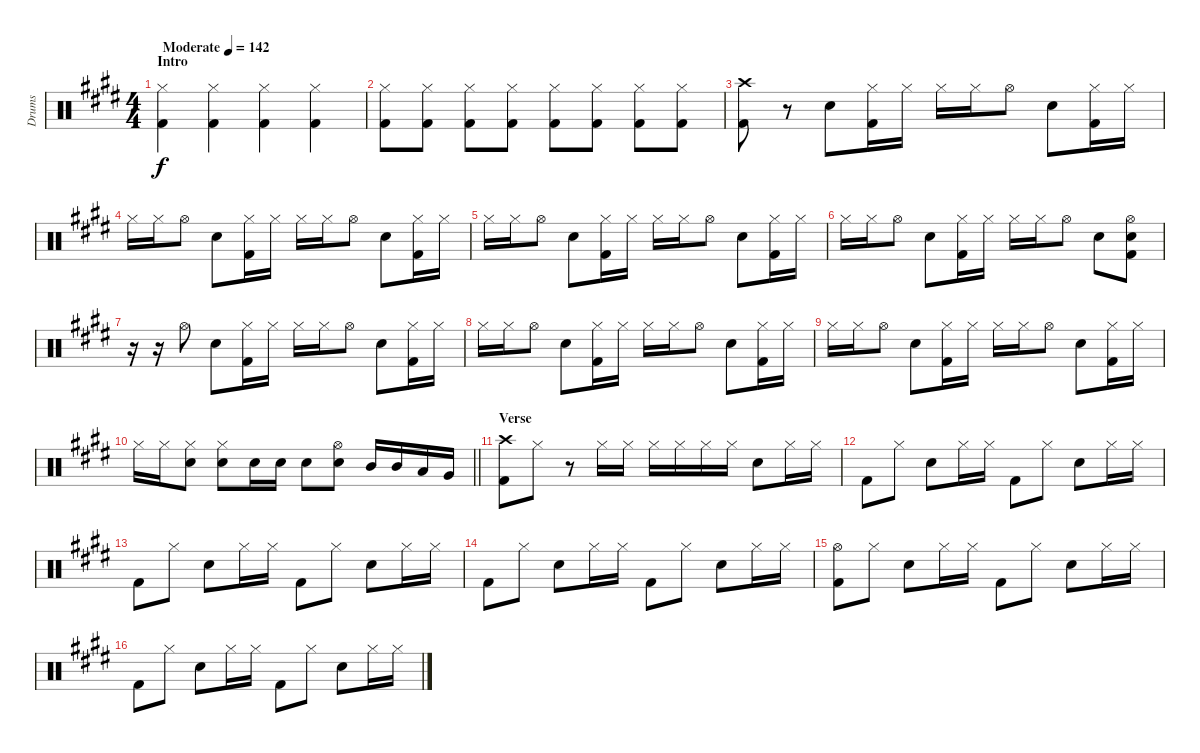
\track ("Drums" "Drums") {instrument percussion}
\staff {score}
\articulation defaults
\ts (4 4)
\section ("" "Intro")
\tempo (142 "Moderate")
\clef neutral
\ks e
("Hi-Hat (closed)" "Kick (hit) 2").4{dy f} ("Hi-Hat (closed)" "Kick (hit) 2").4 ("Hi-Hat (closed)" "Kick (hit) 2").4 ("Hi-Hat (closed)" "Kick (hit) 2").4 |
("Hi-Hat (closed)" "Kick (hit) 2").8 ("Hi-Hat (closed)" "Kick (hit) 2").8 ("Hi-Hat (closed)" "Kick (hit) 2").8 ("Hi-Hat (closed)" "Kick (hit) 2").8 ("Hi-Hat (closed)" "Kick (hit) 2").8 ("Hi-Hat (closed)" "Kick (hit) 2").8 ("Hi-Hat (closed)" "Kick (hit) 2").8 ("Hi-Hat (closed)" "Kick (hit) 2").8 |
("Crash high (hit)" "Kick (hit) 2").8 r.8 "Electric Snare (hit)".8 ("Hi-Hat (closed)" "Kick (hit) 2").16 "Hi-Hat (closed)".16 "Hi-Hat (closed)".16 "Hi-Hat (closed)".16 "Hi-Hat (open)".8 "Electric Snare (hit)".8 ("Hi-Hat (closed)" "Kick (hit) 2").16 "Hi-Hat (closed)".16 |
"Hi-Hat (closed)".16 "Hi-Hat (closed)".16 "Hi-Hat (open)".8 "Electric Snare (hit)".8 ("Hi-Hat (closed)" "Kick (hit) 2").16 "Hi-Hat (closed)".16 "Hi-Hat (closed)".16 "Hi-Hat (closed)".16 "Hi-Hat (open)".8 "Electric Snare (hit)".8 ("Hi-Hat (closed)" "Kick (hit) 2").16 "Hi-Hat (closed)".16 |
"Hi-Hat (closed)".16 "Hi-Hat (closed)".16 "Hi-Hat (open)".8 "Electric Snare (hit)".8 ("Hi-Hat (closed)" "Kick (hit) 2").16 "Hi-Hat (closed)".16 "Hi-Hat (closed)".16 "Hi-Hat (closed)".16 "Hi-Hat (open)".8 "Electric Snare (hit)".8 ("Hi-Hat (closed)" "Kick (hit) 2").16 "Hi-Hat (closed)".16 |
"Hi-Hat (closed)".16 "Hi-Hat (closed)".16 "Hi-Hat (open)".8 "Electric Snare (hit)".8 ("Hi-Hat (closed)" "Kick (hit) 2").16 "Hi-Hat (closed)".16 "Hi-Hat (closed)".16 "Hi-Hat (closed)".16 "Hi-Hat (open)".8 "Electric Snare (hit)".8 ("Hi-Hat (open)" "Electric Snare (hit)" "Kick (hit) 2").8 |
r.16 r.16 "Hi-Hat (open)".8 "Electric Snare (hit)".8 ("Hi-Hat (closed)" "Kick (hit) 2").16 "Hi-Hat (closed)".16 "Hi-Hat (closed)".16 "Hi-Hat (closed)".16 "Hi-Hat (open)".8 "Electric Snare (hit)".8 ("Hi-Hat (closed)" "Kick (hit) 2").16 "Hi-Hat (closed)".16 |
"Hi-Hat (closed)".16 "Hi-Hat (closed)".16 "Hi-Hat (open)".8 "Electric Snare (hit)".8 ("Hi-Hat (closed)" "Kick (hit) 2").16 "Hi-Hat (closed)".16 "Hi-Hat (closed)".16 "Hi-Hat (closed)".16 "Hi-Hat (open)".8 "Electric Snare (hit)".8 ("Hi-Hat (closed)" "Kick (hit) 2").16 "Hi-Hat (closed)".16 |
"Hi-Hat (closed)".16 "Hi-Hat (closed)".16 "Hi-Hat (open)".8 "Electric Snare (hit)".8 ("Hi-Hat (closed)" "Kick (hit) 2").16 "Hi-Hat (closed)".16 "Hi-Hat (closed)".16 "Hi-Hat (closed)".16 "Hi-Hat (open)".8 "Electric Snare (hit)".8 ("Hi-Hat (closed)" "Kick (hit) 2").16 "Hi-Hat (closed)".16 |
\barLineRight lightlight "Hi-Hat (closed)".16 "Hi-Hat (closed)".16
("Hi-Hat (closed)" "Electric Snare (hit)").8 ("Hi-Hat (closed)" "Electric Snare (hit)").8 "Electric Snare (hit)".16 "Electric Snare (hit)".16 "Electric Snare (hit)".8 ("Hi-Hat (open)" "Electric Snare (hit)").8 "Mid Tom (hit)".16 "Mid Tom (hit)".16 "Low Tom (hit)".16 "Very Low Tom (hit)".16 |
\section ("" "Verse")
("Crash high (hit)" "Kick (hit) 2").8 "Hi-Hat (closed)".8 r.8 "Hi-Hat (closed)".16 "Hi-Hat (closed)".16 "Hi-Hat (closed)".16 "Hi-Hat (closed)".16 "Hi-Hat (closed)".16 "Hi-Hat (closed)".16 "Electric Snare (hit)".8 "Hi-Hat (closed)".16 "Hi-Hat (closed)".16 |
"Kick (hit) 2".8 "Hi-Hat (closed)".8 "Electric Snare (hit)".8 "Hi-Hat (closed)".16 "Hi-Hat (closed)".16 "Kick (hit) 2".8 "Hi-Hat (closed)".8 "Electric Snare (hit)".8 "Hi-Hat (closed)".16 "Hi-Hat (closed)".16 |
"Kick (hit) 2".8 "Hi-Hat (closed)".8 "Electric Snare (hit)".8 "Hi-Hat (closed)".16 "Hi-Hat (closed)".16 "Kick (hit) 2".8 "Hi-Hat (closed)".8 "Electric Snare (hit)".8 "Hi-Hat (closed)".16 "Hi-Hat (closed)".16 |
"Kick (hit) 2".8 "Hi-Hat (closed)".8 "Electric Snare (hit)".8 "Hi-Hat (closed)".16 "Hi-Hat (closed)".16 "Kick (hit) 2".8 "Hi-Hat (closed)".8 "Electric Snare (hit)".8 "Hi-Hat (closed)".16 "Hi-Hat (closed)".16 |
("Hi-Hat (open)" "Kick (hit) 2").8 "Hi-Hat (closed)".8 "Electric Snare (hit)".8 "Hi-Hat (closed)".16 "Hi-Hat (closed)".16 "Kick (hit) 2".8 "Hi-Hat (closed)".8 "Electric Snare (hit)".8 "Hi-Hat (closed)".16 "Hi-Hat (closed)".16 |
"Kick (hit) 2".8 "Hi-Hat (closed)".8 "Electric Snare (hit)".8 "Hi-Hat (closed)".16 "Hi-Hat (closed)".16 "Kick (hit) 2".8 "Hi-Hat (closed)".8 "Electric Snare (hit)".8 "Hi-Hat (closed)".16 "Hi-Hat (closed)".16
